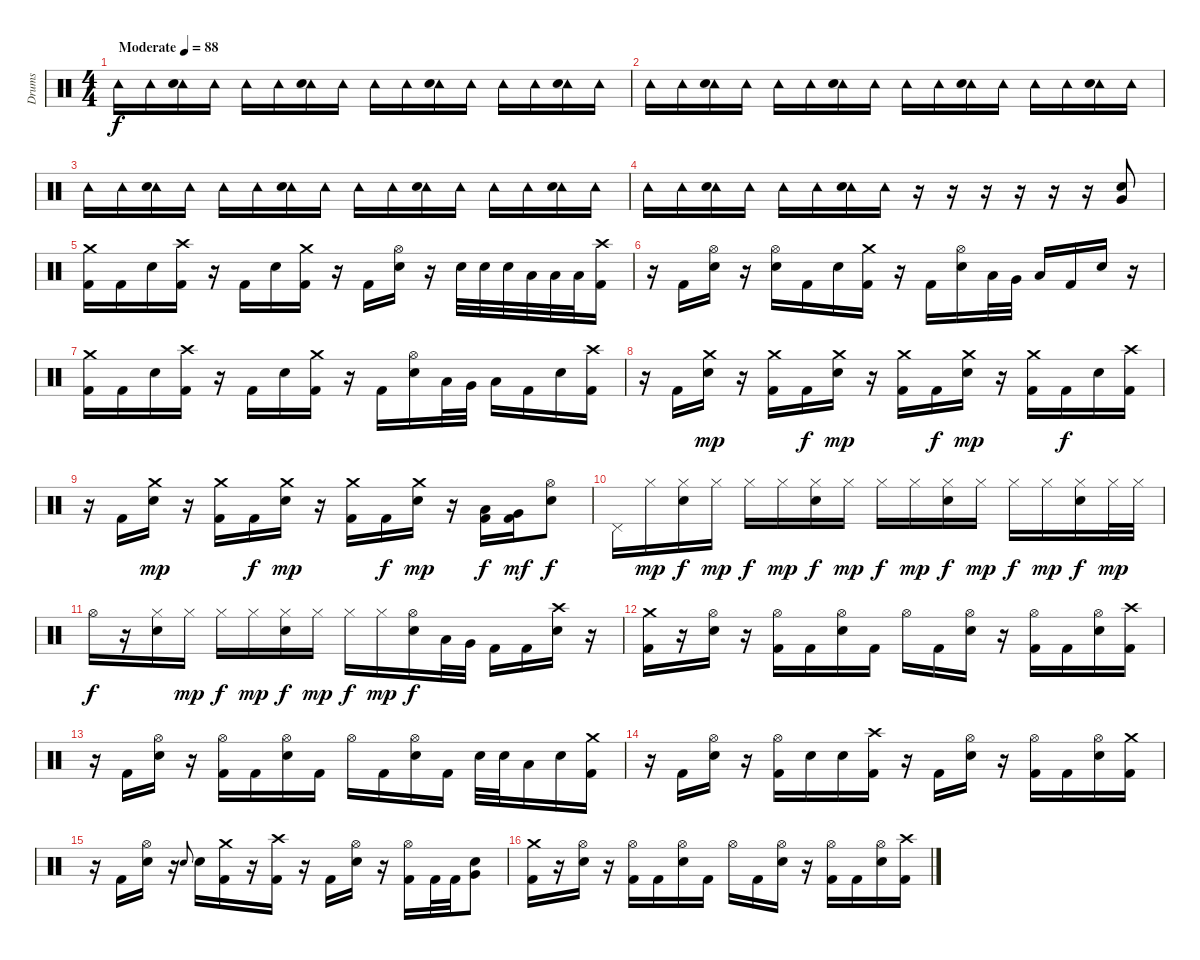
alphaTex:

\track ("Drums" "Drums") {instrument percussion}
\staff {score}
\articulation defaults
\ts (4 4)
\tempo (88 "Moderate")
\clef neutral
\ks c "Tambourine (hit)".16{dy f} "Tambourine (hit)".16
("Tambourine (hit)" "Electric Snare (hit)").16 "Tambourine (hit)".16 "Tambourine (hit)".16 "Tambourine (hit)".16 ("Tambourine (hit)" "Electric Snare (hit)").16 "Tambourine (hit)".16 "Tambourine (hit)".16 "Tambourine (hit)".16 ("Tambourine (hit)" "Electric Snare (hit)").16 "Tambourine (hit)".16 "Tambourine (hit)".16 "Tambourine (hit)".16 ("Tambourine (hit)" "Electric Snare (hit)").16 "Tambourine (hit)".16 |
"Tambourine (hit)".16 "Tambourine (hit)".16 ("Tambourine (hit)" "Electric Snare (hit)").16 "Tambourine (hit)".16 "Tambourine (hit)".16 "Tambourine (hit)".16 ("Tambourine (hit)" "Electric Snare (hit)").16 "Tambourine (hit)".16 "Tambourine (hit)".16 "Tambourine (hit)".16 ("Tambourine (hit)" "Electric Snare (hit)").16 "Tambourine (hit)".16 "Tambourine (hit)".16 "Tambourine (hit)".16 ("Tambourine (hit)" "Electric Snare (hit)").16 "Tambourine (hit)".16 |
"Tambourine (hit)".16 "Tambourine (hit)".16 ("Tambourine (hit)" "Electric Snare (hit)").16 "Tambourine (hit)".16 "Tambourine (hit)".16 "Tambourine (hit)".16 ("Tambourine (hit)" "Electric Snare (hit)").16 "Tambourine (hit)".16 "Tambourine (hit)".16 "Tambourine (hit)".16 ("Tambourine (hit)" "Electric Snare (hit)").16 "Tambourine (hit)".16 "Tambourine (hit)".16 "Tambourine (hit)".16 ("Tambourine (hit)" "Electric Snare (hit)").16 "Tambourine (hit)".16 |
"Tambourine (hit)".16 "Tambourine (hit)".16 ("Tambourine (hit)" "Electric Snare (hit)").16 "Tambourine (hit)".16 "Tambourine (hit)".16 "Tambourine (hit)".16 ("Tambourine (hit)" "Electric Snare (hit)").16 "Tambourine (hit)".16 r.16 r.16 r.16 r.16 r.16 r.16 ("Electric Snare (hit)" "Very Low Tom (hit)").8 |
("Crash medium (hit)" "Kick (hit) 2").16 "Kick (hit) 2".16 "Electric Snare (hit)".16 ("Crash high (hit)" "Kick (hit) 2").16 r.16 "Kick (hit) 2".16 "Electric Snare (hit)".16 ("Crash medium (hit)" "Kick (hit) 2").16 r.16 "Kick (hit) 2".16 ("Hi-Hat (open)" "Electric Snare (hit)").16 r.16 "Electric Snare (hit)".32 "Electric Snare (hit)".32 "Electric Snare (hit)".32 "Low Tom (hit)".32 "Low Tom (hit)".32 "Low Tom (hit)".32 ("Crash high (hit)" "Kick (hit) 2").16 |
r.16 "Kick (hit) 2".16 ("Hi-Hat (open)" "Electric Snare (hit)").16 r.16 ("Hi-Hat (open)" "Electric Snare (hit)").16 "Kick (hit) 2".16 "Electric Snare (hit)".16 ("Crash medium (hit)" "Kick (hit) 2").16 r.16 "Kick (hit) 2".16 ("Hi-Hat (open)" "Electric Snare (hit)").16 "Low Tom (hit)".32 "Very Low Tom (hit)".32 "Low Floor Tom (hit)".16 "Kick (hit) 2".16 "Electric Snare (hit)".16 r.16 |
("Crash medium (hit)" "Kick (hit) 2").16 "Kick (hit) 2".16 "Electric Snare (hit)".16 ("Crash high (hit)" "Kick (hit) 2").16 r.16 "Kick (hit) 2".16 "Electric Snare (hit)".16 ("Crash medium (hit)" "Kick (hit) 2").16 r.16 "Kick (hit) 2".16 ("Hi-Hat (open)" "Electric Snare (hit)").16 "Low Tom (hit)".32 "Very Low Tom (hit)".32 "Low Floor Tom (hit)".16 "Kick (hit) 2".16 "Electric Snare (hit)".16 ("Crash high (hit)" "Kick (hit) 2").16 |
r.16 "Kick (hit) 2".16 ("Crash medium (hit)" "Electric Snare (hit)").16{dy mp} r.16 ("Crash medium (hit)" "Kick (hit) 2").16 "Kick (hit) 2".16{dy f} ("Crash medium (hit)" "Electric Snare (hit)").16{dy mp} r.16 ("Crash medium (hit)" "Kick (hit) 2").16 "Kick (hit) 2".16{dy f} ("Crash medium (hit)" "Electric Snare (hit)").16{dy mp} r.16 ("Crash medium (hit)" "Kick (hit) 2").16 "Kick (hit) 2".16{dy f} "Electric Snare (hit)".16 ("Crash high (hit)" "Kick (hit) 2").16 |
r.16 "Kick (hit) 2".16 ("Crash medium (hit)" "Electric Snare (hit)").16{dy mp} r.16 ("Crash medium (hit)" "Kick (hit) 2").16 "Kick (hit) 2".16{dy f} ("Crash medium (hit)" "Electric Snare (hit)").16{dy mp} r.16 ("Crash medium (hit)" "Kick (hit) 2").16 "Kick (hit) 2".16{dy f} ("Crash medium (hit)" "Electric Snare (hit)").16{dy mp} r.16 ("Low Tom (hit)" "Kick (hit) 2").16{dy f} ("Very Low Tom (hit)" "Kick (hit) 2").16{dy mf} ("Hi-Hat (open)" "Electric Snare (hit)").8{dy f} |
"Pedal Hi-Hat (hit)".16 "Hi-Hat (closed)".16{dy mp} ("Hi-Hat (closed)" "Electric Snare (hit)").16{dy f} "Hi-Hat (closed)".16{dy mp} "Hi-Hat (closed)".16{dy f} "Hi-Hat (closed)".16{dy mp} ("Hi-Hat (closed)" "Electric Snare (hit)").16{dy f} "Hi-Hat (closed)".16{dy mp} "Hi-Hat (closed)".16{dy f} "Hi-Hat (closed)".16{dy mp} ("Hi-Hat (closed)" "Electric Snare (hit)").16{dy f} "Hi-Hat (closed)".16{dy mp} "Hi-Hat (closed)".16{dy f} "Hi-Hat (closed)".16{dy mp} ("Hi-Hat (closed)" "Electric Snare (hit)").16{dy f} "Hi-Hat (closed)".32{dy mp} "Hi-Hat (closed)".32 |
"Hi-Hat (open)".16{dy f} r.16 ("Hi-Hat (closed)" "Electric Snare (hit)").16 "Hi-Hat (closed)".16{dy mp} "Hi-Hat (closed)".16{dy f} "Hi-Hat (closed)".16{dy mp} ("Hi-Hat (closed)" "Electric Snare (hit)").16{dy f} "Hi-Hat (closed)".16{dy mp} "Hi-Hat (closed)".16{dy f} "Hi-Hat (closed)".16{dy mp} ("Hi-Hat (open)" "Electric Snare (hit)").16{dy f} "Low Tom (hit)".32 "Very Low Tom (hit)".32 "Kick (hit) 2".16 "Kick (hit) 2".16 ("Crash high (hit)" "Electric Snare (hit)").16 r.16 |
("Crash medium (hit)" "Kick (hit) 2").16 r.16 ("Hi-Hat (open)" "Electric Snare (hit)").16 r.16 ("Hi-Hat (open)" "Kick (hit) 2").16 "Kick (hit) 2".16 ("Hi-Hat (open)" "Electric Snare (hit)").16 "Kick (hit) 2".16 "Hi-Hat (open)".16 "Kick (hit) 2".16 ("Hi-Hat (open)" "Electric Snare (hit)").16 r.16 ("Hi-Hat (open)" "Kick (hit) 2").16 "Kick (hit) 2".16 ("Hi-Hat (open)" "Electric Snare (hit)").16 ("Crash high (hit)" "Kick (hit) 2").16 |
r.16 "Kick (hit) 2".16 ("Hi-Hat (open)" "Electric Snare (hit)").16 r.16 ("Hi-Hat (open)" "Kick (hit) 2").16 "Kick (hit) 2".16 ("Hi-Hat (open)" "Electric Snare (hit)").16 "Kick (hit) 2".16 "Hi-Hat (open)".16 "Kick (hit) 2".16 ("Hi-Hat (open)" "Electric Snare (hit)").16 "Kick (hit) 2".16 "Electric Snare (hit)".32 "Electric Snare (hit)".32 "Low Tom (hit)".16 "Electric Snare (hit)".16 ("Crash medium (hit)" "Kick (hit) 2").16 |
r.16 "Kick (hit) 2".16 ("Hi-Hat (open)" "Electric Snare (hit)").16 r.16 ("Hi-Hat (open)" "Kick (hit) 2").16 "Electric Snare (hit)".16 "Electric Snare (hit)".16 ("Crash high (hit)" "Kick (hit) 2").16 r.16 "Kick (hit) 2".16 ("Hi-Hat (open)" "Electric Snare (hit)").16 r.16 ("Hi-Hat (open)" "Kick (hit) 2").16 "Kick (hit) 2".16 ("Hi-Hat (open)" "Electric Snare (hit)").16 ("Crash medium (hit)" "Kick (hit) 2").16 |
r.16 "Kick (hit) 2".16 ("Hi-Hat (open)" "Electric Snare (hit)").16 r.16 "Electric Snare (hit)".8{gr onbeat} "Electric Snare (hit)".16 ("Crash medium (hit)" "Kick (hit) 2").16 r.16 ("Crash high (hit)" "Kick (hit) 2").16 r.16 "Kick (hit) 2".16 ("Hi-Hat (open)" "Electric Snare (hit)").16 r.16 ("Hi-Hat (open)" "Kick (hit) 2").16 "Kick (hit) 2".32 "Kick (hit) 2".32 ("Very Low Tom (hit)" "Electric Snare (hit)").8 |
("Crash medium (hit)" "Kick (hit) 2").16 r.16 ("Hi-Hat (open)" "Electric Snare (hit)").16 r.16 ("Hi-Hat (open)" "Kick (hit) 2").16 "Kick (hit) 2".16 ("Hi-Hat (open)" "Electric Snare (hit)").16 "Kick (hit) 2".16 "Hi-Hat (open)".16 "Kick (hit) 2".16 ("Hi-Hat (open)" "Electric Snare (hit)").16 r.16 ("Hi-Hat (open)" "Kick (hit) 2").16 "Kick (hit) 2".16 ("Hi-Hat (open)" "Electric Snare (hit)").16 ("Crash high (hit)" "Kick (hit) 2").16
